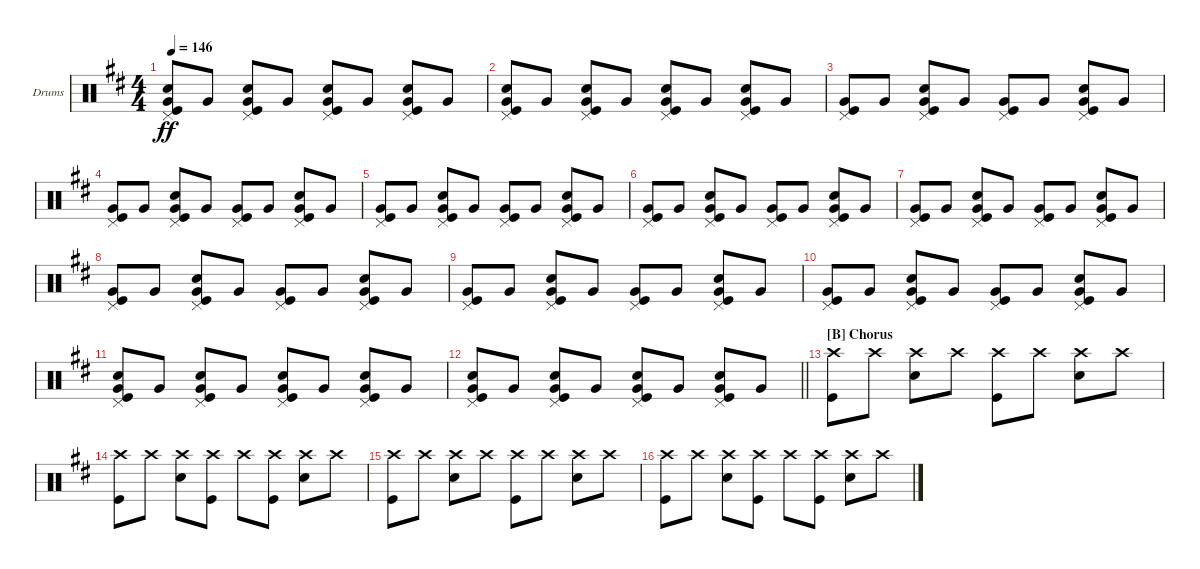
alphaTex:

\bracketExtendMode groupsimilarinstruments
\firstSystemTrackNameOrientation horizontal
\otherSystemsTrackNameOrientation horizontal
\track ("Fabrizio Moretti" "Drums") {instrument percussion}
\staff {score}
\articulation defaults
\ts (4 4)
\tempo 146
\clef neutral
\ks d
("Very Low Tom (hit)" "Pedal Hi-Hat (hit)" "Snare (hit) 2" "Kick (hit)").8{dy ff} "Very Low Tom (hit)".8 ("Very Low Tom (hit)" "Pedal Hi-Hat (hit)" "Snare (hit) 2" "Kick (hit)").8 "Very Low Tom (hit)".8 ("Very Low Tom (hit)" "Pedal Hi-Hat (hit)" "Snare (hit) 2" "Kick (hit)").8 "Very Low Tom (hit)".8 ("Very Low Tom (hit)" "Pedal Hi-Hat (hit)" "Snare (hit) 2" "Kick (hit)").8 "Very Low Tom (hit)".8 |
("Very Low Tom (hit)" "Pedal Hi-Hat (hit)" "Snare (hit) 2" "Kick (hit)").8 "Very Low Tom (hit)".8 ("Very Low Tom (hit)" "Pedal Hi-Hat (hit)" "Snare (hit) 2" "Kick (hit)").8 "Very Low Tom (hit)".8 ("Very Low Tom (hit)" "Pedal Hi-Hat (hit)" "Snare (hit) 2" "Kick (hit)").8 "Very Low Tom (hit)".8 ("Very Low Tom (hit)" "Pedal Hi-Hat (hit)" "Snare (hit) 2" "Kick (hit)").8 "Very Low Tom (hit)".8 |
("Very Low Tom (hit)" "Pedal Hi-Hat (hit)" "Kick (hit)").8 "Very Low Tom (hit)".8 ("Very Low Tom (hit)" "Pedal Hi-Hat (hit)" "Snare (hit) 2" "Kick (hit)").8 "Very Low Tom (hit)".8 ("Very Low Tom (hit)" "Pedal Hi-Hat (hit)" "Kick (hit)").8 "Very Low Tom (hit)".8 ("Very Low Tom (hit)" "Pedal Hi-Hat (hit)" "Snare (hit) 2" "Kick (hit)").8 "Very Low Tom (hit)".8 |
("Very Low Tom (hit)" "Pedal Hi-Hat (hit)" "Kick (hit)").8 "Very Low Tom (hit)".8 ("Very Low Tom (hit)" "Pedal Hi-Hat (hit)" "Snare (hit) 2" "Kick (hit)").8 "Very Low Tom (hit)".8 ("Very Low Tom (hit)" "Pedal Hi-Hat (hit)" "Kick (hit)").8 "Very Low Tom (hit)".8 ("Very Low Tom (hit)" "Pedal Hi-Hat (hit)" "Snare (hit) 2" "Kick (hit)").8 "Very Low Tom (hit)".8 |
("Very Low Tom (hit)" "Pedal Hi-Hat (hit)" "Kick (hit)").8 "Very Low Tom (hit)".8 ("Very Low Tom (hit)" "Pedal Hi-Hat (hit)" "Snare (hit) 2" "Kick (hit)").8 "Very Low Tom (hit)".8 ("Very Low Tom (hit)" "Pedal Hi-Hat (hit)" "Kick (hit)").8 "Very Low Tom (hit)".8 ("Very Low Tom (hit)" "Pedal Hi-Hat (hit)" "Snare (hit) 2" "Kick (hit)").8 "Very Low Tom (hit)".8 |
("Very Low Tom (hit)" "Pedal Hi-Hat (hit)" "Kick (hit)").8 "Very Low Tom (hit)".8 ("Very Low Tom (hit)" "Pedal Hi-Hat (hit)" "Snare (hit) 2" "Kick (hit)").8 "Very Low Tom (hit)".8 ("Very Low Tom (hit)" "Pedal Hi-Hat (hit)" "Kick (hit)").8 "Very Low Tom (hit)".8 ("Very Low Tom (hit)" "Pedal Hi-Hat (hit)" "Snare (hit) 2" "Kick (hit)").8 "Very Low Tom (hit)".8 |
("Very Low Tom (hit)" "Pedal Hi-Hat (hit)" "Kick (hit)").8 "Very Low Tom (hit)".8 ("Very Low Tom (hit)" "Pedal Hi-Hat (hit)" "Snare (hit) 2" "Kick (hit)").8 "Very Low Tom (hit)".8 ("Very Low Tom (hit)" "Pedal Hi-Hat (hit)" "Kick (hit)").8 "Very Low Tom (hit)".8 ("Very Low Tom (hit)" "Pedal Hi-Hat (hit)" "Snare (hit) 2" "Kick (hit)").8 "Very Low Tom (hit)".8 |
("Very Low Tom (hit)" "Pedal Hi-Hat (hit)" "Kick (hit)").8 "Very Low Tom (hit)".8 ("Very Low Tom (hit)" "Pedal Hi-Hat (hit)" "Snare (hit) 2" "Kick (hit)").8 "Very Low Tom (hit)".8 ("Very Low Tom (hit)" "Pedal Hi-Hat (hit)" "Kick (hit)").8 "Very Low Tom (hit)".8 ("Very Low Tom (hit)" "Pedal Hi-Hat (hit)" "Snare (hit) 2" "Kick (hit)").8 "Very Low Tom (hit)".8 |
("Very Low Tom (hit)" "Pedal Hi-Hat (hit)" "Kick (hit)").8 "Very Low Tom (hit)".8 ("Very Low Tom (hit)" "Pedal Hi-Hat (hit)" "Snare (hit) 2" "Kick (hit)").8 "Very Low Tom (hit)".8 ("Very Low Tom (hit)" "Pedal Hi-Hat (hit)" "Kick (hit)").8 "Very Low Tom (hit)".8 ("Very Low Tom (hit)" "Pedal Hi-Hat (hit)" "Snare (hit) 2" "Kick (hit)").8 "Very Low Tom (hit)".8 |
("Very Low Tom (hit)" "Pedal Hi-Hat (hit)" "Kick (hit)").8 "Very Low Tom (hit)".8 ("Very Low Tom (hit)" "Pedal Hi-Hat (hit)" "Snare (hit) 2" "Kick (hit)").8 "Very Low Tom (hit)".8 ("Very Low Tom (hit)" "Pedal Hi-Hat (hit)" "Kick (hit)").8 "Very Low Tom (hit)".8 ("Very Low Tom (hit)" "Pedal Hi-Hat (hit)" "Snare (hit) 2" "Kick (hit)").8 "Very Low Tom (hit)".8 |
("Very Low Tom (hit)" "Pedal Hi-Hat (hit)" "Snare (hit) 2" "Kick (hit)").8 "Very Low Tom (hit)".8 ("Very Low Tom (hit)" "Pedal Hi-Hat (hit)" "Snare (hit) 2" "Kick (hit)").8 "Very Low Tom (hit)".8 ("Very Low Tom (hit)" "Pedal Hi-Hat (hit)" "Snare (hit) 2" "Kick (hit)").8 "Very Low Tom (hit)".8 ("Very Low Tom (hit)" "Pedal Hi-Hat (hit)" "Snare (hit) 2" "Kick (hit)").8 "Very Low Tom (hit)".8 |
\barLineRight lightlight
("Very Low Tom (hit)" "Pedal Hi-Hat (hit)" "Snare (hit) 2" "Kick (hit)").8 "Very Low Tom (hit)".8 ("Very Low Tom (hit)" "Pedal Hi-Hat (hit)" "Snare (hit) 2" "Kick (hit)").8 "Very Low Tom (hit)".8 ("Very Low Tom (hit)" "Pedal Hi-Hat (hit)" "Snare (hit) 2" "Kick (hit)").8 "Very Low Tom (hit)".8 ("Very Low Tom (hit)" "Pedal Hi-Hat (hit)" "Snare (hit) 2" "Kick (hit)").8 "Very Low Tom (hit)".8 |
\section ("B" "Chorus")
("Crash high (hit)" "Kick (hit)").8 "Crash high (hit)".8 ("Crash high (hit)" "Snare (hit) 2").8 "Crash high (hit)".8 ("Crash high (hit)" "Kick (hit)").8 "Crash high (hit)".8 ("Crash high (hit)" "Snare (hit) 2").8 "Crash high (hit)".8 |
("Crash high (hit)" "Kick (hit)").8 "Crash high (hit)".8 ("Crash high (hit)" "Snare (hit) 2").8 ("Crash high (hit)" "Kick (hit)").8 "Crash high (hit)".8 ("Crash high (hit)" "Kick (hit)").8 ("Crash high (hit)" "Snare (hit) 2").8 "Crash high (hit)".8 |
("Crash high (hit)" "Kick (hit)").8 "Crash high (hit)".8 ("Crash high (hit)" "Snare (hit) 2").8 "Crash high (hit)".8 ("Crash high (hit)" "Kick (hit)").8 "Crash high (hit)".8 ("Crash high (hit)" "Snare (hit) 2").8 "Crash high (hit)".8 |
("Crash high (hit)" "Kick (hit)").8 "Crash high (hit)".8 ("Crash high (hit)" "Snare (hit) 2").8 ("Crash high (hit)" "Kick (hit)").8 "Crash high (hit)".8 ("Crash high (hit)" "Kick (hit)").8 ("Crash high (hit)" "Snare (hit) 2").8 "Crash high (hit)".8
